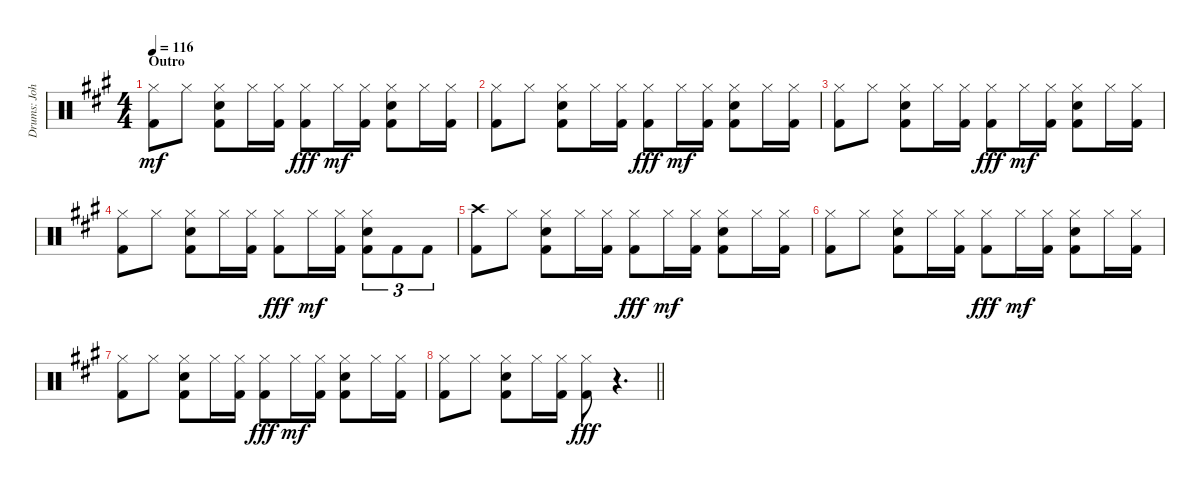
\track ("Drums: John" "Drums: Joh") {instrument percussion}
\staff {score}
\articulation defaults
\ts (4 4)
\section ("" "Outro")
\tempo 116
\clef neutral
\ks a
("Hi-Hat (closed)" "Kick (hit) 2").8{dy mf} "Hi-Hat (closed)".8 ("Hi-Hat (closed)" "Electric Snare (hit)" "Kick (hit) 2").8 "Hi-Hat (closed)".16 ("Hi-Hat (closed)" "Kick (hit) 2").16 ("Hi-Hat (closed)" "Kick (hit) 2").8{dy fff} "Hi-Hat (closed)".16{dy mf} ("Hi-Hat (closed)" "Kick (hit) 2").16 ("Hi-Hat (closed)" "Electric Snare (hit)" "Kick (hit) 2").8 "Hi-Hat (closed)".16 ("Hi-Hat (closed)" "Kick (hit) 2").16 |
("Hi-Hat (closed)" "Kick (hit) 2").8 "Hi-Hat (closed)".8 ("Hi-Hat (closed)" "Electric Snare (hit)" "Kick (hit) 2").8 "Hi-Hat (closed)".16 ("Hi-Hat (closed)" "Kick (hit) 2").16 ("Hi-Hat (closed)" "Kick (hit) 2").8{dy fff} "Hi-Hat (closed)".16{dy mf} ("Hi-Hat (closed)" "Kick (hit) 2").16 ("Hi-Hat (closed)" "Electric Snare (hit)" "Kick (hit) 2").8 "Hi-Hat (closed)".16 ("Hi-Hat (closed)" "Kick (hit) 2").16 |
("Hi-Hat (closed)" "Kick (hit) 2").8 "Hi-Hat (closed)".8 ("Hi-Hat (closed)" "Electric Snare (hit)" "Kick (hit) 2").8 "Hi-Hat (closed)".16 ("Hi-Hat (closed)" "Kick (hit) 2").16 ("Hi-Hat (closed)" "Kick (hit) 2").8{dy fff} "Hi-Hat (closed)".16{dy mf} ("Hi-Hat (closed)" "Kick (hit) 2").16 ("Hi-Hat (closed)" "Electric Snare (hit)" "Kick (hit) 2").8 "Hi-Hat (closed)".16 ("Hi-Hat (closed)" "Kick (hit) 2").16 |
("Hi-Hat (closed)" "Kick (hit) 2").8 "Hi-Hat (closed)".8 ("Hi-Hat (closed)" "Electric Snare (hit)" "Kick (hit) 2").8 "Hi-Hat (closed)".16 ("Hi-Hat (closed)" "Kick (hit) 2").16 ("Hi-Hat (closed)" "Kick (hit) 2").8{dy fff} "Hi-Hat (closed)".16{dy mf} ("Hi-Hat (closed)" "Kick (hit) 2").16 ("Hi-Hat (closed)" "Electric Snare (hit)" "Kick (hit) 2").8{tu (3 2)} "Kick (hit) 2".8{tu (3 2)} "Kick (hit) 2".8{tu (3 2)} |
("Crash high (hit)" "Kick (hit) 2").8 "Hi-Hat (closed)".8 ("Hi-Hat (closed)" "Electric Snare (hit)" "Kick (hit) 2").8 "Hi-Hat (closed)".16 ("Hi-Hat (closed)" "Kick (hit) 2").16 ("Hi-Hat (closed)" "Kick (hit) 2").8{dy fff} "Hi-Hat (closed)".16{dy mf} ("Hi-Hat (closed)" "Kick (hit) 2").16 ("Hi-Hat (closed)" "Electric Snare (hit)" "Kick (hit) 2").8 "Hi-Hat (closed)".16 ("Hi-Hat (closed)" "Kick (hit) 2").16 |
("Hi-Hat (closed)" "Kick (hit) 2").8 "Hi-Hat (closed)".8 ("Hi-Hat (closed)" "Electric Snare (hit)" "Kick (hit) 2").8 "Hi-Hat (closed)".16 ("Hi-Hat (closed)" "Kick (hit) 2").16 ("Hi-Hat (closed)" "Kick (hit) 2").8{dy fff} "Hi-Hat (closed)".16{dy mf} ("Hi-Hat (closed)" "Kick (hit) 2").16 ("Hi-Hat (closed)" "Electric Snare (hit)" "Kick (hit) 2").8 "Hi-Hat (closed)".16 ("Hi-Hat (closed)" "Kick (hit) 2").16 |
("Hi-Hat (closed)" "Kick (hit) 2").8 "Hi-Hat (closed)".8 ("Hi-Hat (closed)" "Electric Snare (hit)" "Kick (hit) 2").8 "Hi-Hat (closed)".16 ("Hi-Hat (closed)" "Kick (hit) 2").16 ("Hi-Hat (closed)" "Kick (hit) 2").8{dy fff} "Hi-Hat (closed)".16{dy mf} ("Hi-Hat (closed)" "Kick (hit) 2").16 ("Hi-Hat (closed)" "Electric Snare (hit)" "Kick (hit) 2").8 "Hi-Hat (closed)".16 ("Hi-Hat (closed)" "Kick (hit) 2").16 |
\barLineRight lightlight
("Hi-Hat (closed)" "Kick (hit) 2").8 "Hi-Hat (closed)".8 ("Hi-Hat (closed)" "Electric Snare (hit)" "Kick (hit) 2").8 "Hi-Hat (closed)".16 ("Hi-Hat (closed)" "Kick (hit) 2").16 ("Hi-Hat (closed)" "Kick (hit) 2").8{dy fff} r.4{d}
